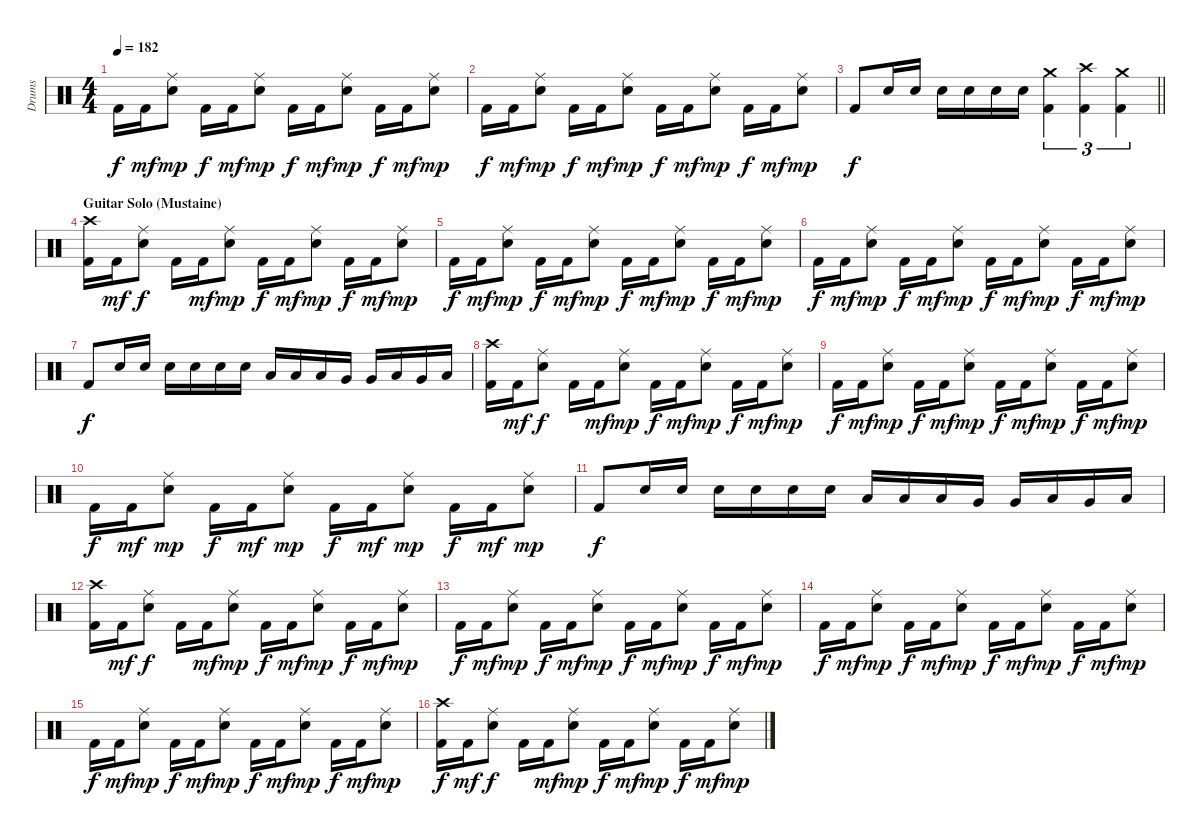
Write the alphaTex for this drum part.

\track ("Drums" "Drums") {instrument percussion}
\staff {score}
\articulation defaults
\ts (4 4)
\tempo 182
\clef neutral
\ks aminor "Kick (hit) 2".16{dy f} "Kick (hit) 2".16{dy mf}
("Ride (middle)" "Snare (hit) 2").8{dy mp} "Kick (hit) 2".16{dy f} "Kick (hit) 2".16{dy mf} ("Ride (middle)" "Snare (hit) 2").8{dy mp} "Kick (hit) 2".16{dy f} "Kick (hit) 2".16{dy mf} ("Ride (middle)" "Snare (hit) 2").8{dy mp} "Kick (hit) 2".16{dy f} "Kick (hit) 2".16{dy mf} ("Ride (middle)" "Snare (hit) 2").8{dy mp} |
"Kick (hit) 2".16{dy f} "Kick (hit) 2".16{dy mf} ("Ride (middle)" "Snare (hit) 2").8{dy mp} "Kick (hit) 2".16{dy f} "Kick (hit) 2".16{dy mf} ("Ride (middle)" "Snare (hit) 2").8{dy mp} "Kick (hit) 2".16{dy f} "Kick (hit) 2".16{dy mf} ("Ride (middle)" "Snare (hit) 2").8{dy mp} "Kick (hit) 2".16{dy f} "Kick (hit) 2".16{dy mf} ("Ride (middle)" "Snare (hit) 2").8{dy mp} |
\barLineRight lightlight "Kick (hit) 2".8{dy f} "Snare (hit) 2".16 "Snare (hit) 2".16 "Snare (hit) 2".16 "Snare (hit) 2".16 "Snare (hit) 2".16 "Snare (hit) 2".16
("Crash medium (hit)" "Kick (hit) 2").4{tu (3 2)} ("Crash high (hit)" "Kick (hit) 2").4{tu (3 2)} ("Crash medium (hit)" "Kick (hit) 2").4{tu (3 2)} |
\section ("" "Guitar Solo (Mustaine)")
("Crash high (hit)" "Kick (hit) 2").16 "Kick (hit) 2".16{dy mf} ("Ride (middle)" "Snare (hit) 2").8{dy f} "Kick (hit) 2".16 "Kick (hit) 2".16{dy mf} ("Ride (middle)" "Snare (hit) 2").8{dy mp} "Kick (hit) 2".16{dy f} "Kick (hit) 2".16{dy mf} ("Ride (middle)" "Snare (hit) 2").8{dy mp} "Kick (hit) 2".16{dy f} "Kick (hit) 2".16{dy mf} ("Ride (middle)" "Snare (hit) 2").8{dy mp} |
"Kick (hit) 2".16{dy f} "Kick (hit) 2".16{dy mf} ("Ride (middle)" "Snare (hit) 2").8{dy mp} "Kick (hit) 2".16{dy f} "Kick (hit) 2".16{dy mf} ("Ride (middle)" "Snare (hit) 2").8{dy mp} "Kick (hit) 2".16{dy f} "Kick (hit) 2".16{dy mf} ("Ride (middle)" "Snare (hit) 2").8{dy mp} "Kick (hit) 2".16{dy f} "Kick (hit) 2".16{dy mf} ("Ride (middle)" "Snare (hit) 2").8{dy mp} |
"Kick (hit) 2".16{dy f} "Kick (hit) 2".16{dy mf} ("Ride (middle)" "Snare (hit) 2").8{dy mp} "Kick (hit) 2".16{dy f} "Kick (hit) 2".16{dy mf} ("Ride (middle)" "Snare (hit) 2").8{dy mp} "Kick (hit) 2".16{dy f} "Kick (hit) 2".16{dy mf} ("Ride (middle)" "Snare (hit) 2").8{dy mp} "Kick (hit) 2".16{dy f} "Kick (hit) 2".16{dy mf} ("Ride (middle)" "Snare (hit) 2").8{dy mp} |
"Kick (hit) 2".8{dy f} "Snare (hit) 2".16 "Snare (hit) 2".16 "Snare (hit) 2".16 "Snare (hit) 2".16 "Snare (hit) 2".16 "Snare (hit) 2".16 "Low Tom (hit)".16 "Low Tom (hit)".16 "Low Tom (hit)".16 "Very Low Tom (hit)".16 "Very Low Tom (hit)".16 "Low Tom (hit)".16 "Very Low Tom (hit)".16 "Low Floor Tom (hit)".16 |
("Crash high (hit)" "Kick (hit) 2").16 "Kick (hit) 2".16{dy mf} ("Ride (middle)" "Snare (hit) 2").8{dy f} "Kick (hit) 2".16 "Kick (hit) 2".16{dy mf} ("Ride (middle)" "Snare (hit) 2").8{dy mp} "Kick (hit) 2".16{dy f} "Kick (hit) 2".16{dy mf} ("Ride (middle)" "Snare (hit) 2").8{dy mp} "Kick (hit) 2".16{dy f} "Kick (hit) 2".16{dy mf} ("Ride (middle)" "Snare (hit) 2").8{dy mp} |
"Kick (hit) 2".16{dy f} "Kick (hit) 2".16{dy mf} ("Ride (middle)" "Snare (hit) 2").8{dy mp} "Kick (hit) 2".16{dy f} "Kick (hit) 2".16{dy mf} ("Ride (middle)" "Snare (hit) 2").8{dy mp} "Kick (hit) 2".16{dy f} "Kick (hit) 2".16{dy mf} ("Ride (middle)" "Snare (hit) 2").8{dy mp} "Kick (hit) 2".16{dy f} "Kick (hit) 2".16{dy mf} ("Ride (middle)" "Snare (hit) 2").8{dy mp} |
"Kick (hit) 2".16{dy f} "Kick (hit) 2".16{dy mf} ("Ride (middle)" "Snare (hit) 2").8{dy mp} "Kick (hit) 2".16{dy f} "Kick (hit) 2".16{dy mf} ("Ride (middle)" "Snare (hit) 2").8{dy mp} "Kick (hit) 2".16{dy f} "Kick (hit) 2".16{dy mf} ("Ride (middle)" "Snare (hit) 2").8{dy mp} "Kick (hit) 2".16{dy f} "Kick (hit) 2".16{dy mf} ("Ride (middle)" "Snare (hit) 2").8{dy mp} |
"Kick (hit) 2".8{dy f} "Snare (hit) 2".16 "Snare (hit) 2".16 "Snare (hit) 2".16 "Snare (hit) 2".16 "Snare (hit) 2".16 "Snare (hit) 2".16 "Low Tom (hit)".16 "Low Tom (hit)".16 "Low Tom (hit)".16 "Very Low Tom (hit)".16 "Very Low Tom (hit)".16 "Low Tom (hit)".16 "Very Low Tom (hit)".16 "Low Floor Tom (hit)".16 |
("Crash high (hit)" "Kick (hit) 2").16 "Kick (hit) 2".16{dy mf} ("Ride (middle)" "Snare (hit) 2").8{dy f} "Kick (hit) 2".16 "Kick (hit) 2".16{dy mf} ("Ride (middle)" "Snare (hit) 2").8{dy mp} "Kick (hit) 2".16{dy f} "Kick (hit) 2".16{dy mf} ("Ride (middle)" "Snare (hit) 2").8{dy mp} "Kick (hit) 2".16{dy f} "Kick (hit) 2".16{dy mf} ("Ride (middle)" "Snare (hit) 2").8{dy mp} |
"Kick (hit) 2".16{dy f} "Kick (hit) 2".16{dy mf} ("Ride (middle)" "Snare (hit) 2").8{dy mp} "Kick (hit) 2".16{dy f} "Kick (hit) 2".16{dy mf} ("Ride (middle)" "Snare (hit) 2").8{dy mp} "Kick (hit) 2".16{dy f} "Kick (hit) 2".16{dy mf} ("Ride (middle)" "Snare (hit) 2").8{dy mp} "Kick (hit) 2".16{dy f} "Kick (hit) 2".16{dy mf} ("Ride (middle)" "Snare (hit) 2").8{dy mp} |
"Kick (hit) 2".16{dy f} "Kick (hit) 2".16{dy mf} ("Ride (middle)" "Snare (hit) 2").8{dy mp} "Kick (hit) 2".16{dy f} "Kick (hit) 2".16{dy mf} ("Ride (middle)" "Snare (hit) 2").8{dy mp} "Kick (hit) 2".16{dy f} "Kick (hit) 2".16{dy mf} ("Ride (middle)" "Snare (hit) 2").8{dy mp} "Kick (hit) 2".16{dy f} "Kick (hit) 2".16{dy mf} ("Ride (middle)" "Snare (hit) 2").8{dy mp} |
"Kick (hit) 2".16{dy f} "Kick (hit) 2".16{dy mf} ("Ride (middle)" "Snare (hit) 2").8{dy mp} "Kick (hit) 2".16{dy f} "Kick (hit) 2".16{dy mf} ("Ride (middle)" "Snare (hit) 2").8{dy mp} "Kick (hit) 2".16{dy f} "Kick (hit) 2".16{dy mf} ("Ride (middle)" "Snare (hit) 2").8{dy mp} "Kick (hit) 2".16{dy f} "Kick (hit) 2".16{dy mf} ("Ride (middle)" "Snare (hit) 2").8{dy mp} |
("Crash high (hit)" "Kick (hit) 2").16{dy f} "Kick (hit) 2".16{dy mf} ("Ride (middle)" "Snare (hit) 2").8{dy f} "Kick (hit) 2".16 "Kick (hit) 2".16{dy mf} ("Ride (middle)" "Snare (hit) 2").8{dy mp} "Kick (hit) 2".16{dy f} "Kick (hit) 2".16{dy mf} ("Ride (middle)" "Snare (hit) 2").8{dy mp} "Kick (hit) 2".16{dy f} "Kick (hit) 2".16{dy mf} ("Ride (middle)" "Snare (hit) 2").8{dy mp}
